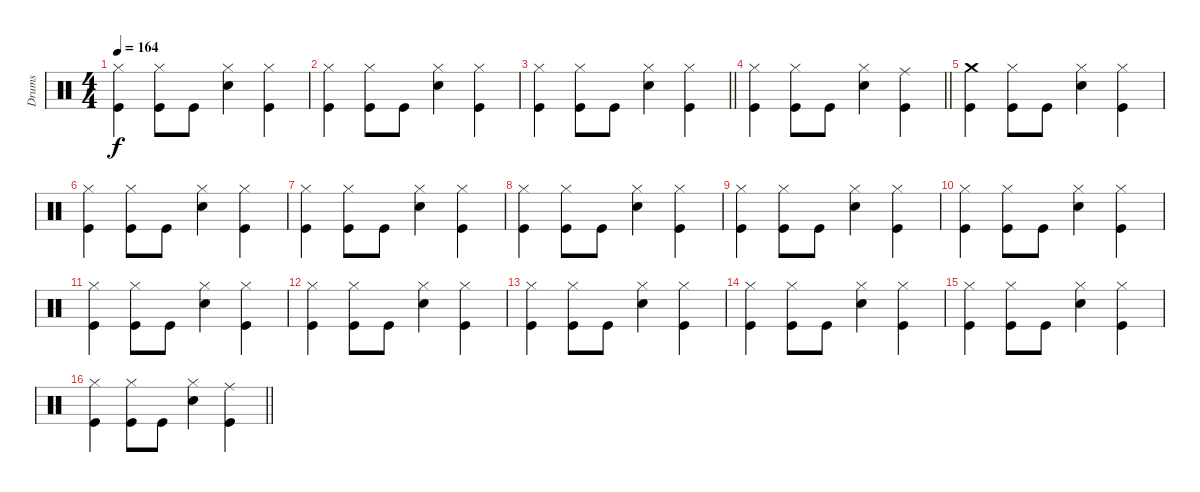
\track ("Drums" "Drums") {instrument percussion}
\staff {score}
\articulation defaults
\ts (4 4)
\tempo 164
\clef neutral
\ks c
("Hi-Hat (closed)" "Kick (hit)").4{dy f} ("Hi-Hat (closed)" "Kick (hit)").8 "Kick (hit)".8 ("Hi-Hat (closed)" "Electric Snare (hit)").4 ("Hi-Hat (closed)" "Kick (hit)").4 |
("Hi-Hat (closed)" "Kick (hit)").4 ("Hi-Hat (closed)" "Kick (hit)").8 "Kick (hit)".8 ("Hi-Hat (closed)" "Electric Snare (hit)").4 ("Hi-Hat (closed)" "Kick (hit)").4 |
\barLineRight lightlight
("Hi-Hat (closed)" "Kick (hit)").4 ("Hi-Hat (closed)" "Kick (hit)").8 "Kick (hit)".8 ("Hi-Hat (closed)" "Electric Snare (hit)").4 ("Hi-Hat (closed)" "Kick (hit)").4 |
\barLineRight lightlight
("Hi-Hat (closed)" "Kick (hit)").4 ("Hi-Hat (closed)" "Kick (hit)").8 "Kick (hit)".8 ("Hi-Hat (closed)" "Electric Snare (hit)").4 ("Ride (middle)" "Kick (hit)").4 |
\section ("" "")
("Crash medium (hit)" "Kick (hit)").4 ("Hi-Hat (closed)" "Kick (hit)").8 "Kick (hit)".8 ("Hi-Hat (closed)" "Electric Snare (hit)").4 ("Hi-Hat (closed)" "Kick (hit)").4 |
("Hi-Hat (closed)" "Kick (hit)").4 ("Hi-Hat (closed)" "Kick (hit)").8 "Kick (hit)".8 ("Hi-Hat (closed)" "Electric Snare (hit)").4 ("Hi-Hat (closed)" "Kick (hit)").4 |
("Hi-Hat (closed)" "Kick (hit)").4 ("Hi-Hat (closed)" "Kick (hit)").8 "Kick (hit)".8 ("Hi-Hat (closed)" "Electric Snare (hit)").4 ("Hi-Hat (closed)" "Kick (hit)").4 |
("Hi-Hat (closed)" "Kick (hit)").4 ("Hi-Hat (closed)" "Kick (hit)").8 "Kick (hit)".8 ("Hi-Hat (closed)" "Electric Snare (hit)").4 ("Hi-Hat (closed)" "Kick (hit)").4 |
("Hi-Hat (closed)" "Kick (hit)").4 ("Hi-Hat (closed)" "Kick (hit)").8 "Kick (hit)".8 ("Hi-Hat (closed)" "Electric Snare (hit)").4 ("Hi-Hat (closed)" "Kick (hit)").4 |
("Hi-Hat (closed)" "Kick (hit)").4 ("Hi-Hat (closed)" "Kick (hit)").8 "Kick (hit)".8 ("Hi-Hat (closed)" "Electric Snare (hit)").4 ("Hi-Hat (closed)" "Kick (hit)").4 |
("Hi-Hat (closed)" "Kick (hit)").4 ("Hi-Hat (closed)" "Kick (hit)").8 "Kick (hit)".8 ("Hi-Hat (closed)" "Electric Snare (hit)").4 ("Hi-Hat (closed)" "Kick (hit)").4 |
("Hi-Hat (closed)" "Kick (hit)").4 ("Hi-Hat (closed)" "Kick (hit)").8 "Kick (hit)".8 ("Hi-Hat (closed)" "Electric Snare (hit)").4 ("Hi-Hat (closed)" "Kick (hit)").4 |
("Hi-Hat (closed)" "Kick (hit)").4 ("Hi-Hat (closed)" "Kick (hit)").8 "Kick (hit)".8 ("Hi-Hat (closed)" "Electric Snare (hit)").4 ("Hi-Hat (closed)" "Kick (hit)").4 |
("Hi-Hat (closed)" "Kick (hit)").4 ("Hi-Hat (closed)" "Kick (hit)").8 "Kick (hit)".8 ("Hi-Hat (closed)" "Electric Snare (hit)").4 ("Hi-Hat (closed)" "Kick (hit)").4 |
("Hi-Hat (closed)" "Kick (hit)").4 ("Hi-Hat (closed)" "Kick (hit)").8 "Kick (hit)".8 ("Hi-Hat (closed)" "Electric Snare (hit)").4 ("Hi-Hat (closed)" "Kick (hit)").4 |
\barLineRight lightlight
("Hi-Hat (closed)" "Kick (hit)").4 ("Hi-Hat (closed)" "Kick (hit)").8 "Kick (hit)".8 ("Hi-Hat (closed)" "Electric Snare (hit)").4 ("Ride (middle)" "Kick (hit)").4
